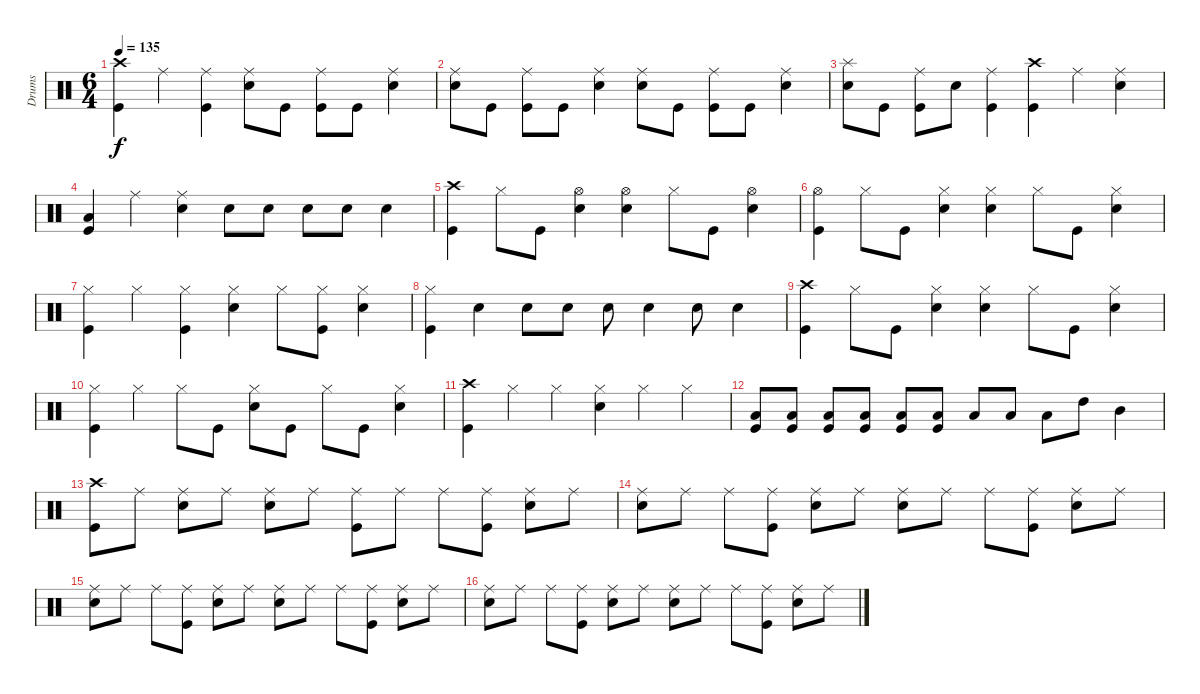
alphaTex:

\track ("Drums" "Drums") {instrument percussion}
\staff {score}
\articulation defaults
\ts (6 4)
\tempo 135
\clef neutral
\ks c
("Crash high (hit)" "Kick (hit)").4{dy f} "Ride (middle)".4 ("Kick (hit)" "Ride (middle)").4 ("Ride (middle)" "Electric Snare (hit)").8 "Kick (hit)".8 ("Ride (middle)" "Kick (hit)").8 "Kick (hit)".8 ("Ride (middle)" "Electric Snare (hit)").4 |
("Electric Snare (hit)" "Ride (middle)").8 "Kick (hit)".8 ("Ride (middle)" "Kick (hit)").8 "Kick (hit)".8 ("Electric Snare (hit)" "Ride (middle)").4 ("Ride (middle)" "Electric Snare (hit)").8 "Kick (hit)".8 ("Ride (middle)" "Kick (hit)").8 "Kick (hit)".8 ("Ride (middle)" "Electric Snare (hit)").4 |
("Electric Snare (hit)" "Splash (hit)").8 "Kick (hit)".8 ("Kick (hit)" "Ride (middle)").8 "Electric Snare (hit)".8 ("Ride (middle)" "Kick (hit)").4 ("Kick (hit)" "Crash high (hit)").4 "Ride (middle)".4 ("Ride (middle)" "Electric Snare (hit)").4 |
("Kick (hit)" "Low Floor Tom (hit)").4 "Ride (middle)".4 ("Ride (middle)" "Electric Snare (hit)").4 "Electric Snare (hit)".8 "Electric Snare (hit)".8 "Electric Snare (hit)".8 "Electric Snare (hit)".8 "Electric Snare (hit)".4 |
("Kick (hit)" "Crash high (hit)").4 "Hi-Hat (closed)".8 "Kick (hit)".8 ("Electric Snare (hit)" "Hi-Hat (open)").4 ("Electric Snare (hit)" "Hi-Hat (open)").4 "Hi-Hat (closed)".8 "Kick (hit)".8 ("Hi-Hat (open)" "Electric Snare (hit)").4 |
("Kick (hit)" "Hi-Hat (open)").4 "Hi-Hat (closed)".8 "Kick (hit)".8 ("Electric Snare (hit)" "Hi-Hat (closed)").4 ("Hi-Hat (closed)" "Electric Snare (hit)").4 "Hi-Hat (closed)".8 "Kick (hit)".8 ("Electric Snare (hit)" "Hi-Hat (closed)").4 |
("Kick (hit)" "Hi-Hat (closed)").4 "Hi-Hat (closed)".4 ("Kick (hit)" "Hi-Hat (closed)").4 ("Electric Snare (hit)" "Hi-Hat (closed)").4 "Hi-Hat (closed)".8 ("Hi-Hat (closed)" "Kick (hit)").8 ("Hi-Hat (closed)" "Electric Snare (hit)").4 |
("Hi-Hat (closed)" "Kick (hit)").4 "Electric Snare (hit)".4 "Electric Snare (hit)".8 "Electric Snare (hit)".8 "Electric Snare (hit)".8 "Electric Snare (hit)".4 "Electric Snare (hit)".8 "Electric Snare (hit)".4 |
("Crash high (hit)" "Kick (hit)").4 "Hi-Hat (closed)".8 "Kick (hit)".8 ("Hi-Hat (closed)" "Electric Snare (hit)").4 ("Electric Snare (hit)" "Hi-Hat (closed)").4 "Hi-Hat (closed)".8 "Kick (hit)".8 ("Hi-Hat (closed)" "Electric Snare (hit)").4 |
("Kick (hit)" "Hi-Hat (closed)").4 "Hi-Hat (closed)".4 "Hi-Hat (closed)".8 "Kick (hit)".8 ("Electric Snare (hit)" "Hi-Hat (closed)").8 "Kick (hit)".8 "Hi-Hat (closed)".8 "Kick (hit)".8 ("Hi-Hat (closed)" "Electric Snare (hit)").4 |
("Crash high (hit)" "Kick (hit)").4 "Hi-Hat (closed)".4 "Hi-Hat (closed)".4 ("Electric Snare (hit)" "Hi-Hat (closed)").4 "Hi-Hat (closed)".4 "Hi-Hat (closed)".4 |
("Kick (hit)" "Low Floor Tom (hit)").8 ("Low Floor Tom (hit)" "Kick (hit)").8 ("Low Floor Tom (hit)" "Kick (hit)").8 ("Kick (hit)" "Low Floor Tom (hit)").8 ("Low Floor Tom (hit)" "Kick (hit)").8 ("Low Floor Tom (hit)" "Kick (hit)").8 "Low Tom (hit)".8 "Low Tom (hit)".8 "Low Tom (hit)".8 "High Tom (hit)".8 "Mid Tom (hit)".4 |
("Crash high (hit)" "Kick (hit)").8 "Ride (middle)".8 ("Ride (middle)" "Electric Snare (hit)").8 "Ride (middle)".8 ("Ride (middle)" "Electric Snare (hit)").8 "Ride (middle)".8 ("Kick (hit)" "Ride (middle)").8 "Ride (middle)".8 "Ride (middle)".8 ("Kick (hit)" "Ride (middle)").8 ("Electric Snare (hit)" "Ride (middle)").8 "Ride (middle)".8 |
("Electric Snare (hit)" "Ride (middle)").8 "Ride (middle)".8 "Ride (middle)".8 ("Kick (hit)" "Ride (middle)").8 ("Electric Snare (hit)" "Ride (middle)").8 "Ride (middle)".8 ("Ride (middle)" "Electric Snare (hit)").8 "Ride (middle)".8 "Ride (middle)".8 ("Kick (hit)" "Ride (middle)").8 ("Electric Snare (hit)" "Ride (middle)").8 "Ride (middle)".8 |
("Electric Snare (hit)" "Ride (middle)").8 "Ride (middle)".8 "Ride (middle)".8 ("Kick (hit)" "Ride (middle)").8 ("Electric Snare (hit)" "Ride (middle)").8 "Ride (middle)".8 ("Electric Snare (hit)" "Ride (middle)").8 "Ride (middle)".8 "Ride (middle)".8 ("Ride (middle)" "Kick (hit)").8 ("Electric Snare (hit)" "Ride (middle)").8 "Ride (middle)".8 |
("Electric Snare (hit)" "Ride (middle)").8 "Ride (middle)".8 "Ride (middle)".8 ("Ride (middle)" "Kick (hit)").8 ("Ride (middle)" "Electric Snare (hit)").8 "Ride (middle)".8 ("Electric Snare (hit)" "Ride (middle)").8 "Ride (middle)".8 "Ride (middle)".8 ("Ride (middle)" "Kick (hit)").8 ("Ride (middle)" "Electric Snare (hit)").8 "Ride (middle)".8
